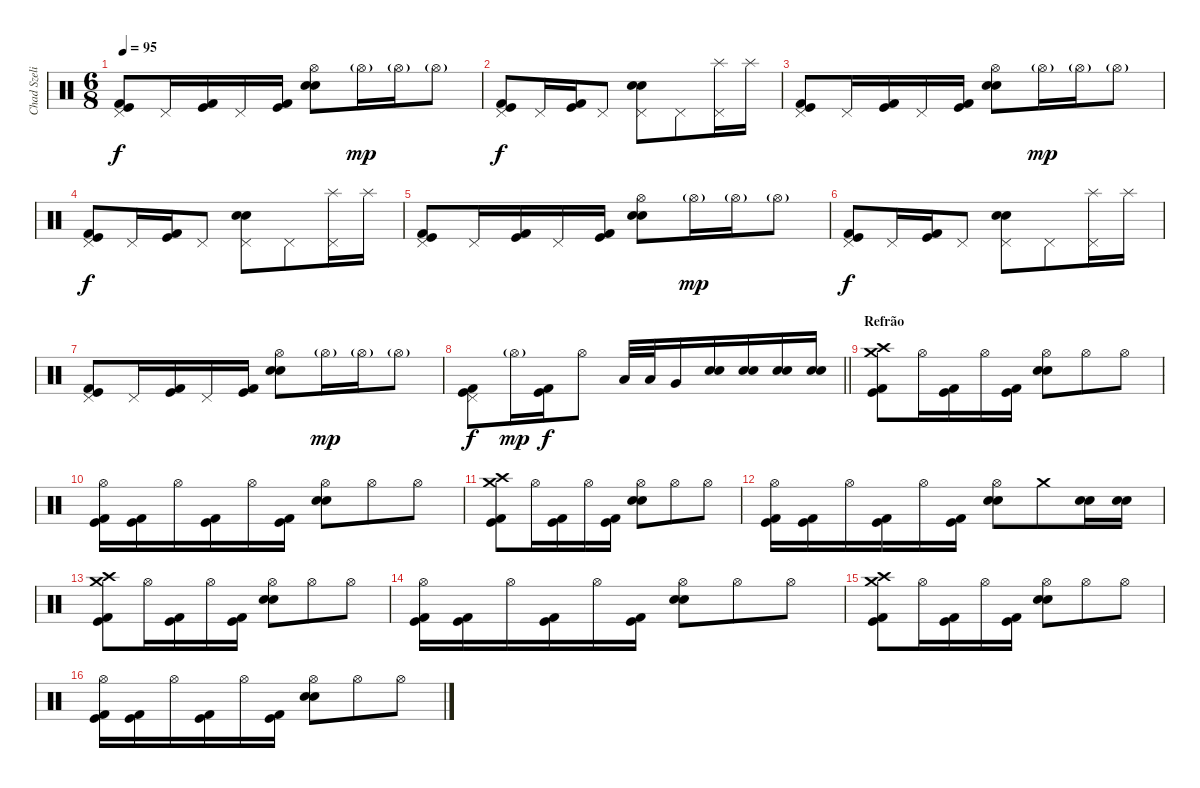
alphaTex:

\track ("Chad Szeliga" "Chad Szeli") {instrument percussion}
\staff {score}
\articulation defaults
\ts (6 8)
\tempo 95
\clef neutral
\ks c
("Kick (hit) 2" "Kick (hit)" "Pedal Hi-Hat (hit)").8{dy f} "Pedal Hi-Hat (hit)".16 ("Kick (hit) 2" "Kick (hit)").16 "Pedal Hi-Hat (hit)".16 ("Kick (hit) 2" "Kick (hit)").16 ("Snare (hit) 2" "Snare (hit) 2" "Hi-Hat (open)").8 "Hi-Hat (open)"{g}.16{dy mp} "Hi-Hat (open)"{g}.16 "Hi-Hat (open)"{g}.8 |
("Kick (hit) 2" "Kick (hit)" "Pedal Hi-Hat (hit)").8{dy f} "Pedal Hi-Hat (hit)".16 ("Kick (hit) 2" "Kick (hit)").16 "Pedal Hi-Hat (hit)".8 ("Snare (hit) 2" "Snare (hit) 2" "Pedal Hi-Hat (hit)").8 "Pedal Hi-Hat (hit)".8 ("Splash (hit)" "Pedal Hi-Hat (hit)").16 "Splash (hit)".16 |
("Kick (hit) 2" "Kick (hit)" "Pedal Hi-Hat (hit)").8 "Pedal Hi-Hat (hit)".16 ("Kick (hit) 2" "Kick (hit)").16 "Pedal Hi-Hat (hit)".16 ("Kick (hit) 2" "Kick (hit)").16 ("Snare (hit) 2" "Snare (hit) 2" "Hi-Hat (open)").8 "Hi-Hat (open)"{g}.16{dy mp} "Hi-Hat (open)"{g}.16 "Hi-Hat (open)"{g}.8 |
("Kick (hit) 2" "Kick (hit)" "Pedal Hi-Hat (hit)").8{dy f} "Pedal Hi-Hat (hit)".16 ("Kick (hit) 2" "Kick (hit)").16 "Pedal Hi-Hat (hit)".8 ("Snare (hit) 2" "Snare (hit) 2" "Pedal Hi-Hat (hit)").8 "Pedal Hi-Hat (hit)".8 ("Splash (hit)" "Pedal Hi-Hat (hit)").16 "Splash (hit)".16 |
("Kick (hit) 2" "Kick (hit)" "Pedal Hi-Hat (hit)").8 "Pedal Hi-Hat (hit)".16 ("Kick (hit) 2" "Kick (hit)").16 "Pedal Hi-Hat (hit)".16 ("Kick (hit) 2" "Kick (hit)").16 ("Snare (hit) 2" "Snare (hit) 2" "Hi-Hat (open)").8 "Hi-Hat (open)"{g}.16{dy mp} "Hi-Hat (open)"{g}.16 "Hi-Hat (open)"{g}.8 |
("Kick (hit) 2" "Kick (hit)" "Pedal Hi-Hat (hit)").8{dy f} "Pedal Hi-Hat (hit)".16 ("Kick (hit) 2" "Kick (hit)").16 "Pedal Hi-Hat (hit)".8 ("Snare (hit) 2" "Snare (hit) 2" "Pedal Hi-Hat (hit)").8 "Pedal Hi-Hat (hit)".8 ("Splash (hit)" "Pedal Hi-Hat (hit)").16 "Splash (hit)".16 |
("Kick (hit) 2" "Kick (hit)" "Pedal Hi-Hat (hit)").8 "Pedal Hi-Hat (hit)".16 ("Kick (hit) 2" "Kick (hit)").16 "Pedal Hi-Hat (hit)".16 ("Kick (hit) 2" "Kick (hit)").16 ("Snare (hit) 2" "Snare (hit) 2" "Hi-Hat (open)").8 "Hi-Hat (open)"{g}.16{dy mp} "Hi-Hat (open)"{g}.16 "Hi-Hat (open)"{g}.8 |
\barLineRight lightlight
("Kick (hit) 2" "Kick (hit)" "Pedal Hi-Hat (hit)").8{dy f} "Hi-Hat (open)"{g}.16{dy mp} ("Kick (hit) 2" "Kick (hit)").16{dy f} "Hi-Hat (open)".8 "Low Tom (hit)".32 "Low Tom (hit)".32 "Very Low Tom (hit)".16 ("Snare (hit) 2" "Snare (hit) 2").16 ("Snare (hit) 2" "Snare (hit) 2").16 ("Snare (hit) 2" "Snare (hit) 2").16 ("Snare (hit) 2" "Snare (hit) 2").16 |
\section ("" "Refrão")
("Crash high (hit)" "Kick (hit) 2" "Kick (hit)" "Crash medium (hit)").8 "Hi-Hat (open)".16 ("Kick (hit) 2" "Kick (hit)").16 "Hi-Hat (open)".16 ("Kick (hit) 2" "Kick (hit)").16 ("Snare (hit) 2" "Snare (hit) 2" "Hi-Hat (open)").8 "Hi-Hat (open)".8 "Hi-Hat (open)".8 |
("Kick (hit) 2" "Kick (hit)" "Hi-Hat (open)").16 ("Kick (hit) 2" "Kick (hit)").16 "Hi-Hat (open)".16 ("Kick (hit) 2" "Kick (hit)").16 "Hi-Hat (open)".16 ("Kick (hit) 2" "Kick (hit)").16 ("Snare (hit) 2" "Snare (hit) 2" "Hi-Hat (open)").8 "Hi-Hat (open)".8 "Hi-Hat (open)".8 |
("Crash high (hit)" "Kick (hit) 2" "Kick (hit)" "Crash medium (hit)").8 "Hi-Hat (open)".16 ("Kick (hit) 2" "Kick (hit)").16 "Hi-Hat (open)".16 ("Kick (hit) 2" "Kick (hit)").16 ("Snare (hit) 2" "Snare (hit) 2" "Hi-Hat (open)").8 "Hi-Hat (open)".8 "Hi-Hat (open)".8 |
("Kick (hit) 2" "Kick (hit)" "Hi-Hat (open)").16 ("Kick (hit) 2" "Kick (hit)").16 "Hi-Hat (open)".16 ("Kick (hit) 2" "Kick (hit)").16 "Hi-Hat (open)".16 ("Kick (hit) 2" "Kick (hit)").16 ("Snare (hit) 2" "Snare (hit) 2" "Hi-Hat (open)").8 "Crash medium (hit)".8 ("Snare (hit) 2" "Snare (hit) 2").16 ("Snare (hit) 2" "Snare (hit) 2").16 |
("Crash high (hit)" "Kick (hit) 2" "Kick (hit)" "Crash medium (hit)").8 "Hi-Hat (open)".16 ("Kick (hit) 2" "Kick (hit)").16 "Hi-Hat (open)".16 ("Kick (hit) 2" "Kick (hit)").16 ("Snare (hit) 2" "Snare (hit) 2" "Hi-Hat (open)").8 "Hi-Hat (open)".8 "Hi-Hat (open)".8 |
("Kick (hit) 2" "Kick (hit)" "Hi-Hat (open)").16 ("Kick (hit) 2" "Kick (hit)").16 "Hi-Hat (open)".16 ("Kick (hit) 2" "Kick (hit)").16 "Hi-Hat (open)".16 ("Kick (hit) 2" "Kick (hit)").16 ("Snare (hit) 2" "Snare (hit) 2" "Hi-Hat (open)").8 "Hi-Hat (open)".8 "Hi-Hat (open)".8 |
("Crash high (hit)" "Kick (hit) 2" "Kick (hit)" "Crash medium (hit)").8 "Hi-Hat (open)".16 ("Kick (hit) 2" "Kick (hit)").16 "Hi-Hat (open)".16 ("Kick (hit) 2" "Kick (hit)").16 ("Snare (hit) 2" "Snare (hit) 2" "Hi-Hat (open)").8 "Hi-Hat (open)".8 "Hi-Hat (open)".8 |
("Kick (hit) 2" "Kick (hit)" "Hi-Hat (open)").16 ("Kick (hit) 2" "Kick (hit)").16 "Hi-Hat (open)".16 ("Kick (hit) 2" "Kick (hit)").16 "Hi-Hat (open)".16 ("Kick (hit) 2" "Kick (hit)").16 ("Snare (hit) 2" "Snare (hit) 2" "Hi-Hat (open)").8 "Hi-Hat (open)".8 "Hi-Hat (open)".8
